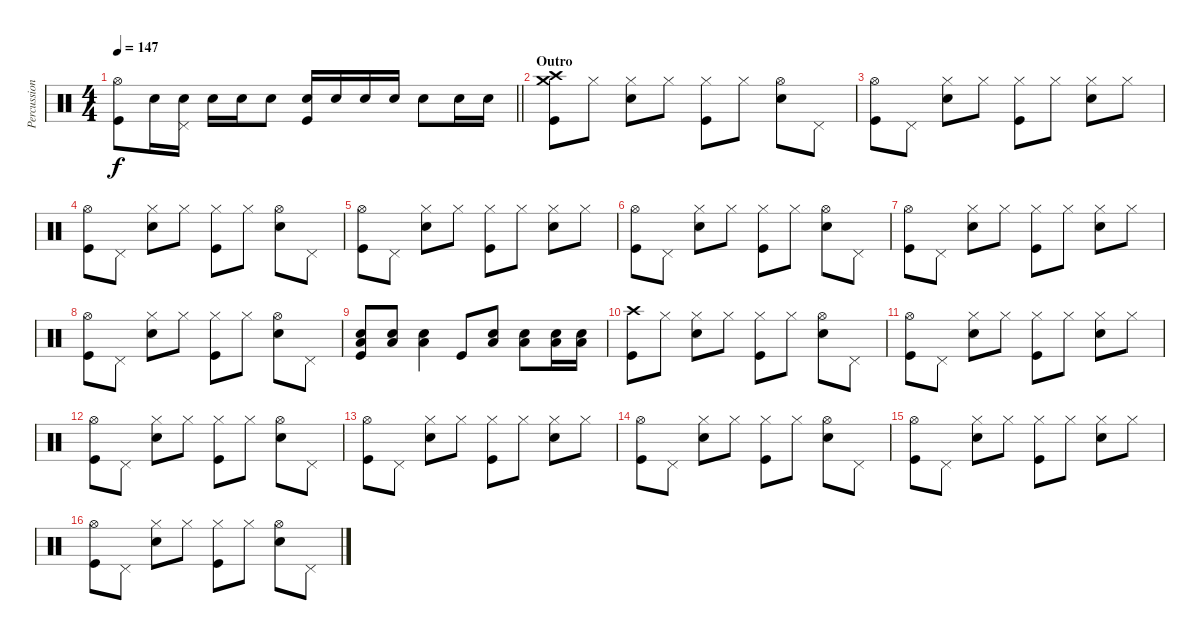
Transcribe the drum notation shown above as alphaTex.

\track ("Percussion" "Percussion") {instrument percussion}
\staff {score}
\articulation defaults
\ts (4 4)
\tempo 147
\clef neutral
\barLineRight lightlight
\ks c
("Hi-Hat (open)" "Kick (hit)").8{dy f} "Electric Snare (hit)".16 ("Pedal Hi-Hat (hit)" "Electric Snare (hit)").16 "Electric Snare (hit)".16 "Electric Snare (hit)".16 "Electric Snare (hit)".8 ("Electric Snare (hit)" "Kick (hit)").16 "Electric Snare (hit)".16 "Electric Snare (hit)".16 "Electric Snare (hit)".16 "Electric Snare (hit)".8 "Electric Snare (hit)".16 "Electric Snare (hit)".16 |
\section ("" "Outro")
("Crash high (hit)" "Crash medium (hit)" "Kick (hit)").8 "Hi-Hat (closed)".8 ("Hi-Hat (closed)" "Electric Snare (hit)").8 "Hi-Hat (closed)".8 ("Hi-Hat (closed)" "Kick (hit)").8 "Hi-Hat (closed)".8 ("Hi-Hat (open)" "Electric Snare (hit)").8 "Pedal Hi-Hat (hit)".8 |
("Hi-Hat (open)" "Kick (hit)").8 "Pedal Hi-Hat (hit)".8 ("Hi-Hat (closed)" "Electric Snare (hit)").8 "Hi-Hat (closed)".8 ("Hi-Hat (closed)" "Kick (hit)").8 "Hi-Hat (closed)".8 ("Hi-Hat (closed)" "Electric Snare (hit)").8 "Hi-Hat (closed)".8 |
("Hi-Hat (open)" "Kick (hit)").8 "Pedal Hi-Hat (hit)".8 ("Hi-Hat (closed)" "Electric Snare (hit)").8 "Hi-Hat (closed)".8 ("Hi-Hat (closed)" "Kick (hit)").8 "Hi-Hat (closed)".8 ("Hi-Hat (open)" "Electric Snare (hit)").8 "Pedal Hi-Hat (hit)".8 |
("Hi-Hat (open)" "Kick (hit)").8 "Pedal Hi-Hat (hit)".8 ("Hi-Hat (closed)" "Electric Snare (hit)").8 "Hi-Hat (closed)".8 ("Hi-Hat (closed)" "Kick (hit)").8 "Hi-Hat (closed)".8 ("Hi-Hat (closed)" "Electric Snare (hit)").8 "Hi-Hat (closed)".8 |
("Hi-Hat (open)" "Kick (hit)").8 "Pedal Hi-Hat (hit)".8 ("Hi-Hat (closed)" "Electric Snare (hit)").8 "Hi-Hat (closed)".8 ("Hi-Hat (closed)" "Kick (hit)").8 "Hi-Hat (closed)".8 ("Hi-Hat (open)" "Electric Snare (hit)").8 "Pedal Hi-Hat (hit)".8 |
("Hi-Hat (open)" "Kick (hit)").8 "Pedal Hi-Hat (hit)".8 ("Hi-Hat (closed)" "Electric Snare (hit)").8 "Hi-Hat (closed)".8 ("Hi-Hat (closed)" "Kick (hit)").8 "Hi-Hat (closed)".8 ("Hi-Hat (closed)" "Electric Snare (hit)").8 "Hi-Hat (closed)".8 |
("Hi-Hat (open)" "Kick (hit)").8 "Pedal Hi-Hat (hit)".8 ("Hi-Hat (closed)" "Electric Snare (hit)").8 "Hi-Hat (closed)".8 ("Hi-Hat (closed)" "Kick (hit)").8 "Hi-Hat (closed)".8 ("Hi-Hat (open)" "Electric Snare (hit)").8 "Pedal Hi-Hat (hit)".8 |
("Electric Snare (hit)" "Low Floor Tom (hit)" "Kick (hit)").8 ("Electric Snare (hit)" "Low Floor Tom (hit)").8 ("Electric Snare (hit)" "Low Floor Tom (hit)").4 "Kick (hit)".8 ("Electric Snare (hit)" "Low Floor Tom (hit)").8 ("Electric Snare (hit)" "Low Floor Tom (hit)").8 ("Electric Snare (hit)" "Low Floor Tom (hit)").16 ("Electric Snare (hit)" "Low Floor Tom (hit)").16 |
("Crash high (hit)" "Kick (hit)").8 "Hi-Hat (closed)".8 ("Hi-Hat (closed)" "Electric Snare (hit)").8 "Hi-Hat (closed)".8 ("Hi-Hat (closed)" "Kick (hit)").8 "Hi-Hat (closed)".8 ("Hi-Hat (open)" "Electric Snare (hit)").8 "Pedal Hi-Hat (hit)".8 |
("Hi-Hat (open)" "Kick (hit)").8 "Pedal Hi-Hat (hit)".8 ("Hi-Hat (closed)" "Electric Snare (hit)").8 "Hi-Hat (closed)".8 ("Hi-Hat (closed)" "Kick (hit)").8 "Hi-Hat (closed)".8 ("Hi-Hat (closed)" "Electric Snare (hit)").8 "Hi-Hat (closed)".8 |
("Hi-Hat (open)" "Kick (hit)").8 "Pedal Hi-Hat (hit)".8 ("Hi-Hat (closed)" "Electric Snare (hit)").8 "Hi-Hat (closed)".8 ("Hi-Hat (closed)" "Kick (hit)").8 "Hi-Hat (closed)".8 ("Hi-Hat (open)" "Electric Snare (hit)").8 "Pedal Hi-Hat (hit)".8 |
("Hi-Hat (open)" "Kick (hit)").8 "Pedal Hi-Hat (hit)".8 ("Hi-Hat (closed)" "Electric Snare (hit)").8 "Hi-Hat (closed)".8 ("Hi-Hat (closed)" "Kick (hit)").8 "Hi-Hat (closed)".8 ("Hi-Hat (closed)" "Electric Snare (hit)").8 "Hi-Hat (closed)".8 |
("Hi-Hat (open)" "Kick (hit)").8 "Pedal Hi-Hat (hit)".8 ("Hi-Hat (closed)" "Electric Snare (hit)").8 "Hi-Hat (closed)".8 ("Hi-Hat (closed)" "Kick (hit)").8 "Hi-Hat (closed)".8 ("Hi-Hat (open)" "Electric Snare (hit)").8 "Pedal Hi-Hat (hit)".8 |
("Hi-Hat (open)" "Kick (hit)").8 "Pedal Hi-Hat (hit)".8 ("Hi-Hat (closed)" "Electric Snare (hit)").8 "Hi-Hat (closed)".8 ("Hi-Hat (closed)" "Kick (hit)").8 "Hi-Hat (closed)".8 ("Hi-Hat (closed)" "Electric Snare (hit)").8 "Hi-Hat (closed)".8 |
("Hi-Hat (open)" "Kick (hit)").8 "Pedal Hi-Hat (hit)".8 ("Hi-Hat (closed)" "Electric Snare (hit)").8 "Hi-Hat (closed)".8 ("Hi-Hat (closed)" "Kick (hit)").8 "Hi-Hat (closed)".8 ("Hi-Hat (open)" "Electric Snare (hit)").8 "Pedal Hi-Hat (hit)".8
